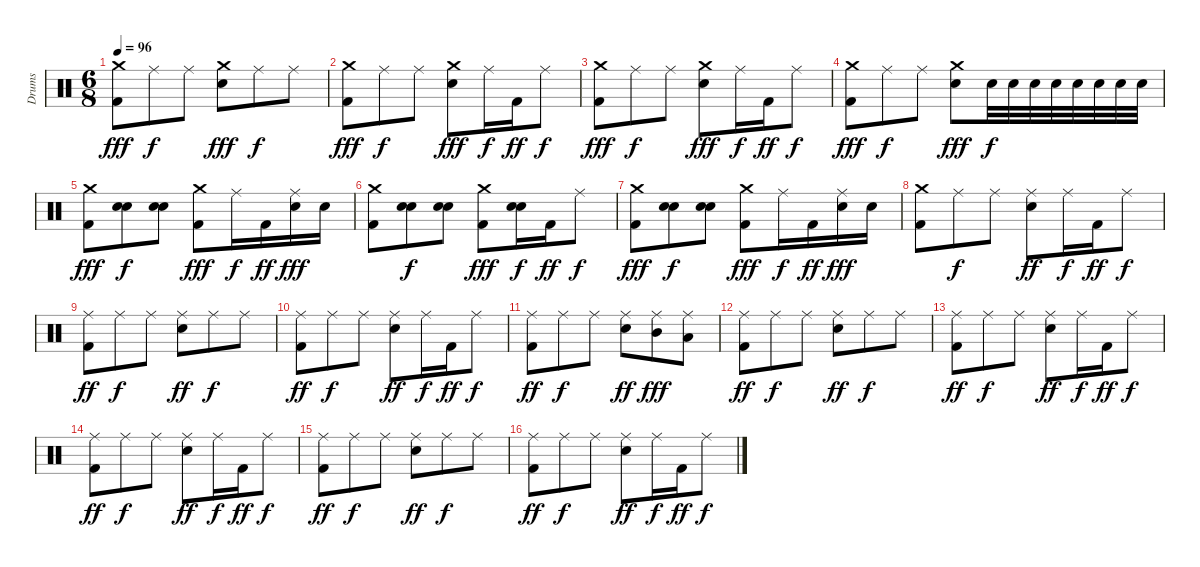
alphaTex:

\track ("Drums" "Drums") {instrument percussion}
\staff {score}
\articulation defaults
\ts (6 8)
\tempo 96
\clef neutral
\ks c
("Kick (hit) 2" "Crash medium (hit)").8{dy fff} "Ride (middle)".8{dy f} "Ride (middle)".8 ("Electric Snare (hit)" "Crash medium (hit)").8{dy fff} "Ride (middle)".8{dy f} "Ride (middle)".8 |
("Kick (hit) 2" "Crash medium (hit)").8{dy fff} "Ride (middle)".8{dy f} "Ride (middle)".8 ("Electric Snare (hit)" "Crash medium (hit)").8{dy fff} "Ride (middle)".16{dy f} "Kick (hit) 2".16{dy ff} "Ride (middle)".8{dy f} |
("Kick (hit) 2" "Crash medium (hit)").8{dy fff} "Ride (middle)".8{dy f} "Ride (middle)".8 ("Electric Snare (hit)" "Crash medium (hit)").8{dy fff} "Ride (middle)".16{dy f} "Kick (hit) 2".16{dy ff} "Ride (middle)".8{dy f} |
("Kick (hit) 2" "Crash medium (hit)").8{dy fff} "Ride (middle)".8{dy f} "Ride (middle)".8 ("Electric Snare (hit)" "Crash medium (hit)").8{dy fff} "Electric Snare (hit)".32{dy f} "Electric Snare (hit)".32 "Electric Snare (hit)".32 "Electric Snare (hit)".32 "Electric Snare (hit)".32 "Electric Snare (hit)".32 "Electric Snare (hit)".32 "Electric Snare (hit)".32 |
("Kick (hit) 2" "Crash medium (hit)").8{dy fff} ("Electric Snare (hit)" "Electric Snare (hit)").8{dy f} ("Electric Snare (hit)" "Electric Snare (hit)").8 ("Kick (hit) 2" "Crash medium (hit)").8{dy fff} "Ride (middle)".16{dy f} "Kick (hit) 2".16{dy ff} ("Ride (middle)" "Electric Snare (hit)").16{dy fff} "Electric Snare (hit)".16 |
("Kick (hit) 2" "Crash medium (hit)").8 ("Electric Snare (hit)" "Electric Snare (hit)").8{dy f} ("Electric Snare (hit)" "Electric Snare (hit)").8 ("Kick (hit) 2" "Crash medium (hit)").8{dy fff} ("Electric Snare (hit)" "Electric Snare (hit)").16{dy f} "Kick (hit) 2".16{dy ff} "Ride (middle)".8{dy f} |
("Kick (hit) 2" "Crash medium (hit)").8{dy fff} ("Electric Snare (hit)" "Electric Snare (hit)").8{dy f} ("Electric Snare (hit)" "Electric Snare (hit)").8 ("Kick (hit) 2" "Crash medium (hit)").8{dy fff} "Ride (middle)".16{dy f} "Kick (hit) 2".16{dy ff} ("Ride (middle)" "Electric Snare (hit)").16{dy fff} "Electric Snare (hit)".16 |
("Kick (hit) 2" "Crash medium (hit)").8 "Ride (middle)".8{dy f} "Ride (middle)".8 ("Electric Snare (hit)" "Ride (middle)").8{dy ff} "Ride (middle)".16{dy f} "Kick (hit) 2".16{dy ff} "Ride (middle)".8{dy f} |
("Kick (hit) 2" "Ride (middle)").8{dy ff} "Ride (middle)".8{dy f} "Ride (middle)".8 ("Electric Snare (hit)" "Ride (middle)").8{dy ff} "Ride (middle)".8{dy f} "Ride (middle)".8 |
("Ride (middle)" "Kick (hit) 2").8{dy ff} "Ride (middle)".8{dy f} "Ride (middle)".8 ("Ride (middle)" "Electric Snare (hit)").8{dy ff} "Ride (middle)".16{dy f} "Kick (hit) 2".16{dy ff} "Ride (middle)".8{dy f} |
("Ride (middle)" "Kick (hit) 2").8{dy ff} "Ride (middle)".8{dy f} "Ride (middle)".8 ("Ride (middle)" "Electric Snare (hit)").8{dy ff} ("Mid Tom (hit)" "Ride (middle)").8{dy fff} ("Low Tom (hit)" "Ride (middle)").8 |
("Ride (middle)" "Kick (hit) 2").8{dy ff} "Ride (middle)".8{dy f} "Ride (middle)".8 ("Ride (middle)" "Electric Snare (hit)").8{dy ff} "Ride (middle)".8{dy f} "Ride (middle)".8 |
("Kick (hit) 2" "Ride (middle)").8{dy ff} "Ride (middle)".8{dy f} "Ride (middle)".8 ("Electric Snare (hit)" "Ride (middle)").8{dy ff} "Ride (middle)".16{dy f} "Kick (hit) 2".16{dy ff} "Ride (middle)".8{dy f} |
("Ride (middle)" "Kick (hit) 2").8{dy ff} "Ride (middle)".8{dy f} "Ride (middle)".8 ("Ride (middle)" "Electric Snare (hit)").8{dy ff} "Ride (middle)".16{dy f} "Kick (hit) 2".16{dy ff} "Ride (middle)".8{dy f} |
("Ride (middle)" "Kick (hit) 2").8{dy ff} "Ride (middle)".8{dy f} "Ride (middle)".8 ("Ride (middle)" "Electric Snare (hit)").8{dy ff} "Ride (middle)".8{dy f} "Ride (middle)".8 |
("Kick (hit) 2" "Ride (middle)").8{dy ff} "Ride (middle)".8{dy f} "Ride (middle)".8 ("Electric Snare (hit)" "Ride (middle)").8{dy ff} "Ride (middle)".16{dy f} "Kick (hit) 2".16{dy ff} "Ride (middle)".8{dy f}
